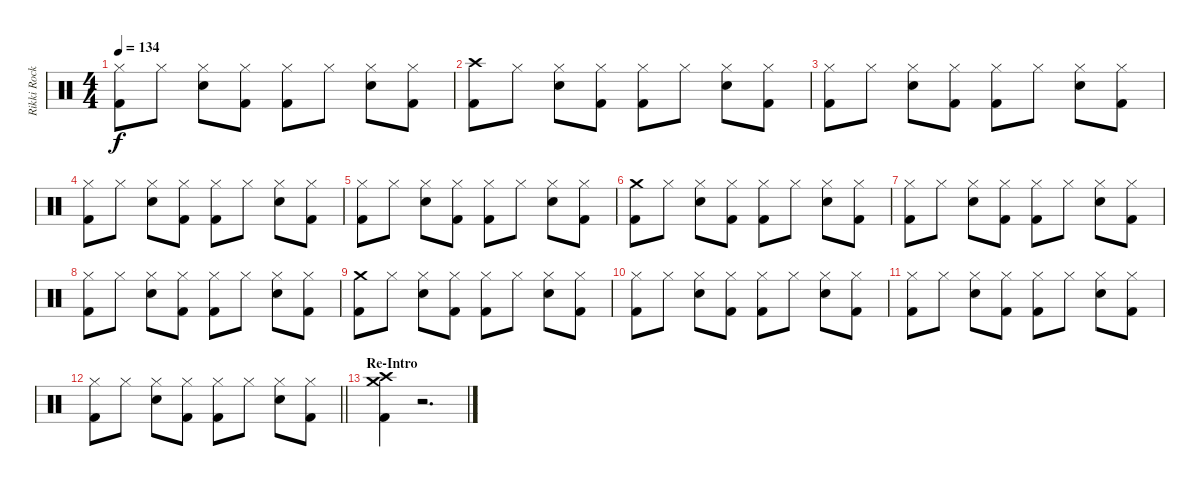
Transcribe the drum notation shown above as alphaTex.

\track ("Rikki Rocket" "Rikki Rock") {instrument percussion}
\staff {score}
\articulation defaults
\ts (4 4)
\tempo 134
\clef neutral
\ks c
("Hi-Hat (closed)" "Kick (hit) 2").8{dy f} "Hi-Hat (closed)".8 ("Hi-Hat (closed)" "Snare (hit) 2").8 ("Hi-Hat (closed)" "Kick (hit) 2").8 ("Hi-Hat (closed)" "Kick (hit) 2").8 "Hi-Hat (closed)".8 ("Hi-Hat (closed)" "Snare (hit) 2").8 ("Hi-Hat (closed)" "Kick (hit) 2").8 |
("Crash high (hit)" "Kick (hit) 2").8 "Hi-Hat (closed)".8 ("Hi-Hat (closed)" "Snare (hit) 2").8 ("Hi-Hat (closed)" "Kick (hit) 2").8 ("Hi-Hat (closed)" "Kick (hit) 2").8 "Hi-Hat (closed)".8 ("Hi-Hat (closed)" "Snare (hit) 2").8 ("Hi-Hat (closed)" "Kick (hit) 2").8 |
("Hi-Hat (closed)" "Kick (hit) 2").8 "Hi-Hat (closed)".8 ("Hi-Hat (closed)" "Snare (hit) 2").8 ("Hi-Hat (closed)" "Kick (hit) 2").8 ("Hi-Hat (closed)" "Kick (hit) 2").8 "Hi-Hat (closed)".8 ("Hi-Hat (closed)" "Snare (hit) 2").8 ("Hi-Hat (closed)" "Kick (hit) 2").8 |
("Hi-Hat (closed)" "Kick (hit) 2").8 "Hi-Hat (closed)".8 ("Hi-Hat (closed)" "Snare (hit) 2").8 ("Hi-Hat (closed)" "Kick (hit) 2").8 ("Hi-Hat (closed)" "Kick (hit) 2").8 "Hi-Hat (closed)".8 ("Hi-Hat (closed)" "Snare (hit) 2").8 ("Hi-Hat (closed)" "Kick (hit) 2").8 |
("Hi-Hat (closed)" "Kick (hit) 2").8 "Hi-Hat (closed)".8 ("Hi-Hat (closed)" "Snare (hit) 2").8 ("Hi-Hat (closed)" "Kick (hit) 2").8 ("Hi-Hat (closed)" "Kick (hit) 2").8 "Hi-Hat (closed)".8 ("Hi-Hat (closed)" "Snare (hit) 2").8 ("Hi-Hat (closed)" "Kick (hit) 2").8 |
("Crash medium (hit)" "Kick (hit) 2").8 "Hi-Hat (closed)".8 ("Hi-Hat (closed)" "Snare (hit) 2").8 ("Hi-Hat (closed)" "Kick (hit) 2").8 ("Hi-Hat (closed)" "Kick (hit) 2").8 "Hi-Hat (closed)".8 ("Hi-Hat (closed)" "Snare (hit) 2").8 ("Hi-Hat (closed)" "Kick (hit) 2").8 |
("Hi-Hat (closed)" "Kick (hit) 2").8 "Hi-Hat (closed)".8 ("Hi-Hat (closed)" "Snare (hit) 2").8 ("Hi-Hat (closed)" "Kick (hit) 2").8 ("Hi-Hat (closed)" "Kick (hit) 2").8 "Hi-Hat (closed)".8 ("Hi-Hat (closed)" "Snare (hit) 2").8 ("Hi-Hat (closed)" "Kick (hit) 2").8 |
("Hi-Hat (closed)" "Kick (hit) 2").8 "Hi-Hat (closed)".8 ("Hi-Hat (closed)" "Snare (hit) 2").8 ("Hi-Hat (closed)" "Kick (hit) 2").8 ("Hi-Hat (closed)" "Kick (hit) 2").8 "Hi-Hat (closed)".8 ("Hi-Hat (closed)" "Snare (hit) 2").8 ("Hi-Hat (closed)" "Kick (hit) 2").8 |
("Crash medium (hit)" "Kick (hit) 2").8 "Hi-Hat (closed)".8 ("Hi-Hat (closed)" "Snare (hit) 2").8 ("Hi-Hat (closed)" "Kick (hit) 2").8 ("Hi-Hat (closed)" "Kick (hit) 2").8 "Hi-Hat (closed)".8 ("Hi-Hat (closed)" "Snare (hit) 2").8 ("Hi-Hat (closed)" "Kick (hit) 2").8 |
("Hi-Hat (closed)" "Kick (hit) 2").8 "Hi-Hat (closed)".8 ("Hi-Hat (closed)" "Snare (hit) 2").8 ("Hi-Hat (closed)" "Kick (hit) 2").8 ("Hi-Hat (closed)" "Kick (hit) 2").8 "Hi-Hat (closed)".8 ("Hi-Hat (closed)" "Snare (hit) 2").8 ("Hi-Hat (closed)" "Kick (hit) 2").8 |
("Hi-Hat (closed)" "Kick (hit) 2").8 "Hi-Hat (closed)".8 ("Hi-Hat (closed)" "Snare (hit) 2").8 ("Hi-Hat (closed)" "Kick (hit) 2").8 ("Hi-Hat (closed)" "Kick (hit) 2").8 "Hi-Hat (closed)".8 ("Hi-Hat (closed)" "Snare (hit) 2").8 ("Hi-Hat (closed)" "Kick (hit) 2").8 |
\barLineRight lightlight
("Hi-Hat (closed)" "Kick (hit) 2").8 "Hi-Hat (closed)".8 ("Hi-Hat (closed)" "Snare (hit) 2").8 ("Hi-Hat (closed)" "Kick (hit) 2").8 ("Hi-Hat (closed)" "Kick (hit) 2").8 "Hi-Hat (closed)".8 ("Hi-Hat (closed)" "Snare (hit) 2").8 ("Hi-Hat (closed)" "Kick (hit) 2").8 |
\section ("" "Re-Intro")
("Crash medium (hit)" "Crash high (hit)" "Kick (hit) 2").4 r.2{d}
